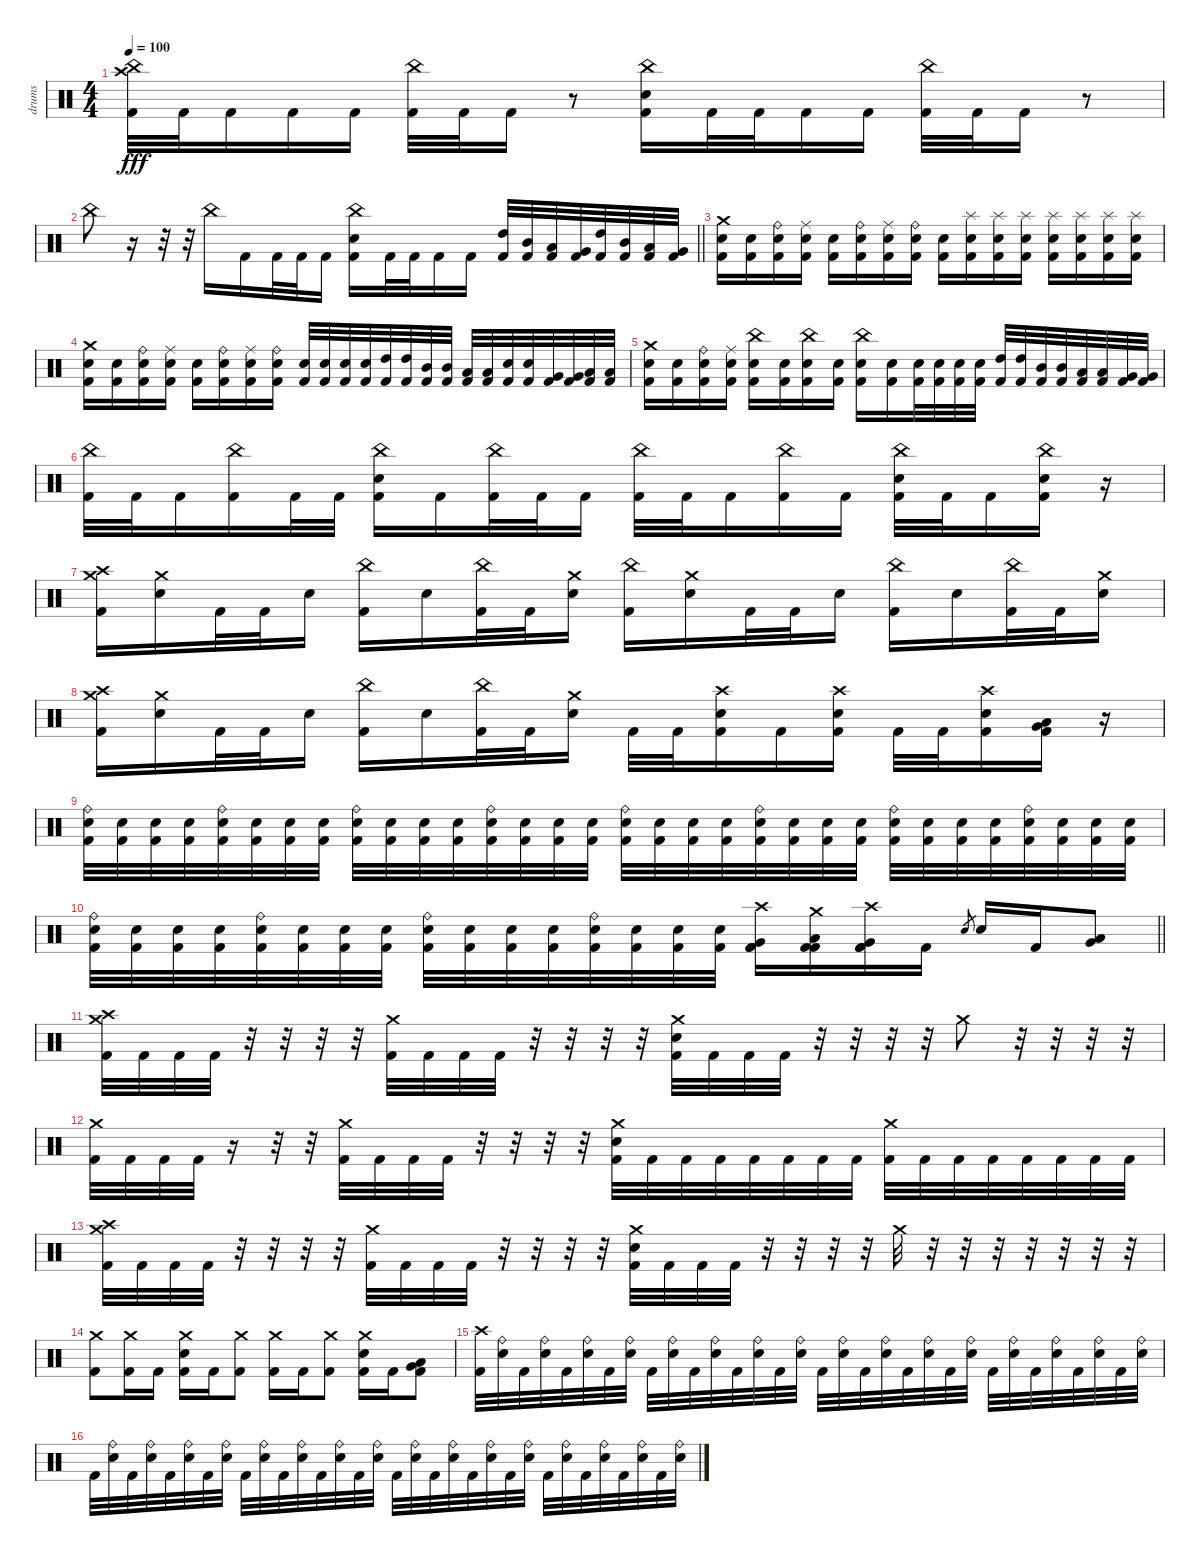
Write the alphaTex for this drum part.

\track ("drums" "drums") {instrument percussion}
\staff {score}
\articulation defaults
\ts (4 4)
\tempo 100
\clef neutral
\ks c
("China (hit)" "Crash high (hit)" "Kick (hit) 2").32{dy fff} "Kick (hit) 2".32 "Kick (hit) 2".16 "Kick (hit) 2".16 "Kick (hit) 2".16 ("China (hit)" "Kick (hit) 2").32 "Kick (hit) 2".32 "Kick (hit) 2".16 r.8 ("China (hit)" "Electric Snare (hit)" "Kick (hit) 2").16 "Kick (hit) 2".32 "Kick (hit) 2".32 "Kick (hit) 2".16 "Kick (hit) 2".16 ("China (hit)" "Kick (hit) 2").32 "Kick (hit) 2".32 "Kick (hit) 2".16 r.8 |
\barLineRight lightlight "China (hit)".8
r.16 r.32 r.32 "China (hit)".16 "Kick (hit) 2".16 "Kick (hit) 2".32 "Kick (hit) 2".32 "Kick (hit) 2".16 ("China (hit)" "Electric Snare (hit)" "Kick (hit) 2").16 "Kick (hit) 2".32 "Kick (hit) 2".32 "Kick (hit) 2".16 "Kick (hit) 2".16 ("High Tom (hit)" "Kick (hit) 2").32 ("Mid Tom (hit)" "Kick (hit) 2").32 ("Low Tom (hit)" "Kick (hit) 2").32 ("Very Low Tom (hit)" "Kick (hit) 2").32 ("High Tom (hit)" "Kick (hit) 2").32 ("Mid Tom (hit)" "Kick (hit) 2").32 ("Low Tom (hit)" "Kick (hit) 2").32 ("Very Low Tom (hit)" "Kick (hit) 2").32 |
\section ("" "")
("Crash medium (hit)" "Electric Snare (hit)" "Kick (hit) 2").16 ("Electric Snare (hit)" "Kick (hit) 2").16 ("Ride (bell)" "Electric Snare (hit)" "Kick (hit) 2").16 ("Ride (middle)" "Electric Snare (hit)" "Kick (hit) 2").16 ("Electric Snare (hit)" "Kick (hit) 2").16 ("Ride (bell)" "Electric Snare (hit)" "Kick (hit) 2").16 ("Ride (middle)" "Electric Snare (hit)" "Kick (hit) 2").16 ("Ride (bell)" "Electric Snare (hit)" "Kick (hit) 2").16 ("Electric Snare (hit)" "Kick (hit) 2").16 ("Splash (hit)" "Electric Snare (hit)" "Kick (hit) 2").16 ("Splash (hit)" "Electric Snare (hit)" "Kick (hit) 2").16 ("Splash (hit)" "Electric Snare (hit)" "Kick (hit) 2").16 ("Splash (hit)" "Electric Snare (hit)" "Kick (hit) 2").16 ("Splash (hit)" "Electric Snare (hit)" "Kick (hit) 2").16 ("Splash (hit)" "Electric Snare (hit)" "Kick (hit) 2").16 ("Splash (hit)" "Electric Snare (hit)" "Kick (hit) 2").16 |
("Crash medium (hit)" "Electric Snare (hit)" "Kick (hit) 2").16 ("Electric Snare (hit)" "Kick (hit) 2").16 ("Ride (bell)" "Electric Snare (hit)" "Kick (hit) 2").16 ("Ride (middle)" "Electric Snare (hit)" "Kick (hit) 2").16 ("Electric Snare (hit)" "Kick (hit) 2").16 ("Ride (bell)" "Electric Snare (hit)" "Kick (hit) 2").16 ("Ride (middle)" "Electric Snare (hit)" "Kick (hit) 2").16 ("Ride (bell)" "Electric Snare (hit)" "Kick (hit) 2").16 ("Electric Snare (hit)" "Kick (hit) 2").32 ("Electric Snare (hit)" "Kick (hit) 2").32 ("Electric Snare (hit)" "Kick (hit) 2").32 ("Electric Snare (hit)" "Kick (hit) 2").32 ("High Tom (hit)" "Kick (hit) 2").32 ("High Tom (hit)" "Kick (hit) 2").32 ("Mid Tom (hit)" "Kick (hit) 2").32 ("Mid Tom (hit)" "Kick (hit) 2").32 ("Low Tom (hit)" "Kick (hit) 2").32 ("Low Tom (hit)" "Kick (hit) 2").32 ("Electric Snare (hit)" "Kick (hit) 2").32 ("Electric Snare (hit)" "Kick (hit) 2").32 ("Very Low Tom (hit)" "Kick (hit) 2").32 ("Very Low Tom (hit)" "Kick (hit) 2").32 ("Low Floor Tom (hit)" "Kick (hit) 2").32 ("Low Floor Tom (hit)" "Kick (hit) 2").32 |
("Crash medium (hit)" "Electric Snare (hit)" "Kick (hit) 2").16 ("Electric Snare (hit)" "Kick (hit) 2").16 ("Ride (bell)" "Electric Snare (hit)" "Kick (hit) 2").16 ("Ride (middle)" "Electric Snare (hit)" "Kick (hit) 2").16 ("China (hit)" "Electric Snare (hit)" "Kick (hit) 2").16 ("Electric Snare (hit)" "Kick (hit) 2").16 ("China (hit)" "Electric Snare (hit)" "Kick (hit) 2").16 ("Electric Snare (hit)" "Kick (hit) 2").16 ("China (hit)" "Electric Snare (hit)" "Kick (hit) 2").16 ("Electric Snare (hit)" "Kick (hit) 2").16 ("Electric Snare (hit)" "Kick (hit) 2").32 ("Electric Snare (hit)" "Kick (hit) 2").32 ("Electric Snare (hit)" "Kick (hit) 2").32 ("Electric Snare (hit)" "Kick (hit) 2").32 ("High Tom (hit)" "Kick (hit) 2").32 ("High Tom (hit)" "Kick (hit) 2").32 ("Mid Tom (hit)" "Kick (hit) 2").32 ("Mid Tom (hit)" "Kick (hit) 2").32 ("Low Tom (hit)" "Kick (hit) 2").32 ("Low Tom (hit)" "Kick (hit) 2").32 ("Very Low Tom (hit)" "Kick (hit) 2").32 ("Very Low Tom (hit)" "Kick (hit) 2").32 |
("China (hit)" "Kick (hit) 2").32 "Kick (hit) 2".32 "Kick (hit) 2".16 ("China (hit)" "Kick (hit) 2").16 "Kick (hit) 2".32 "Kick (hit) 2".32 ("China (hit)" "Electric Snare (hit)" "Kick (hit) 2").16 "Kick (hit) 2".16 ("China (hit)" "Kick (hit) 2").32 "Kick (hit) 2".32 "Kick (hit) 2".16 ("China (hit)" "Kick (hit) 2").32 "Kick (hit) 2".32 "Kick (hit) 2".16 ("China (hit)" "Kick (hit) 2").16 "Kick (hit) 2".16 ("China (hit)" "Electric Snare (hit)" "Kick (hit) 2").32 "Kick (hit) 2".32 "Kick (hit) 2".16 ("China (hit)" "Electric Snare (hit)" "Kick (hit) 2").16 r.16 |
("Crash high (hit)" "Crash medium (hit)" "Kick (hit) 2").16 ("Crash medium (hit)" "Electric Snare (hit)").16 "Kick (hit) 2".32 "Kick (hit) 2".32 "Electric Snare (hit)".16 ("China (hit)" "Kick (hit) 2").16 "Electric Snare (hit)".16 ("China (hit)" "Kick (hit) 2").32 "Kick (hit) 2".32 ("Crash medium (hit)" "Electric Snare (hit)").16 ("China (hit)" "Kick (hit) 2").16 ("Crash medium (hit)" "Electric Snare (hit)").16 "Kick (hit) 2".32 "Kick (hit) 2".32 "Electric Snare (hit)".16 ("China (hit)" "Kick (hit) 2").16 "Electric Snare (hit)".16 ("China (hit)" "Kick (hit) 2").32 "Kick (hit) 2".32 ("Crash medium (hit)" "Electric Snare (hit)").16 |
("Crash high (hit)" "Crash medium (hit)" "Kick (hit) 2").16 ("Crash medium (hit)" "Electric Snare (hit)").16 "Kick (hit) 2".32 "Kick (hit) 2".32 "Electric Snare (hit)".16 ("China (hit)" "Kick (hit) 2").16 "Electric Snare (hit)".16 ("China (hit)" "Kick (hit) 2").32 "Kick (hit) 2".32 ("Crash medium (hit)" "Electric Snare (hit)").16 "Kick (hit) 2".32 "Kick (hit) 2".32 ("Crash high (hit)" "Electric Snare (hit)" "Kick (hit) 2").16 "Kick (hit) 2".16 ("Crash high (hit)" "Electric Snare (hit)" "Kick (hit) 2").16 "Kick (hit) 2".32 "Kick (hit) 2".32 ("Crash high (hit)" "Electric Snare (hit)" "Kick (hit) 2").16 ("Very Low Tom (hit)" "Low Floor Tom (hit)" "Kick (hit) 2").16 r.16 |
("Ride (bell)" "Electric Snare (hit)" "Kick (hit) 2").32 ("Electric Snare (hit)" "Kick (hit) 2").32 ("Electric Snare (hit)" "Kick (hit) 2").32 ("Electric Snare (hit)" "Kick (hit) 2").32 ("Ride (bell)" "Electric Snare (hit)" "Kick (hit) 2").32 ("Electric Snare (hit)" "Kick (hit) 2").32 ("Electric Snare (hit)" "Kick (hit) 2").32 ("Electric Snare (hit)" "Kick (hit) 2").32 ("Ride (bell)" "Electric Snare (hit)" "Kick (hit) 2").32 ("Electric Snare (hit)" "Kick (hit) 2").32 ("Electric Snare (hit)" "Kick (hit) 2").32 ("Electric Snare (hit)" "Kick (hit) 2").32 ("Ride (bell)" "Electric Snare (hit)" "Kick (hit) 2").32 ("Electric Snare (hit)" "Kick (hit) 2").32 ("Electric Snare (hit)" "Kick (hit) 2").32 ("Electric Snare (hit)" "Kick (hit) 2").32 ("Ride (bell)" "Electric Snare (hit)" "Kick (hit) 2").32 ("Electric Snare (hit)" "Kick (hit) 2").32 ("Electric Snare (hit)" "Kick (hit) 2").32 ("Electric Snare (hit)" "Kick (hit) 2").32 ("Ride (bell)" "Electric Snare (hit)" "Kick (hit) 2").32 ("Electric Snare (hit)" "Kick (hit) 2").32 ("Electric Snare (hit)" "Kick (hit) 2").32 ("Electric Snare (hit)" "Kick (hit) 2").32 ("Ride (bell)" "Electric Snare (hit)" "Kick (hit) 2").32 ("Electric Snare (hit)" "Kick (hit) 2").32 ("Electric Snare (hit)" "Kick (hit) 2").32 ("Electric Snare (hit)" "Kick (hit) 2").32 ("Ride (bell)" "Electric Snare (hit)" "Kick (hit) 2").32 ("Electric Snare (hit)" "Kick (hit) 2").32 ("Electric Snare (hit)" "Kick (hit) 2").32 ("Electric Snare (hit)" "Kick (hit) 2").32 |
\barLineRight lightlight
("Ride (bell)" "Electric Snare (hit)" "Kick (hit) 2").32 ("Electric Snare (hit)" "Kick (hit) 2").32 ("Electric Snare (hit)" "Kick (hit) 2").32 ("Electric Snare (hit)" "Kick (hit) 2").32 ("Ride (bell)" "Electric Snare (hit)" "Kick (hit) 2").32 ("Electric Snare (hit)" "Kick (hit) 2").32 ("Electric Snare (hit)" "Kick (hit) 2").32 ("Electric Snare (hit)" "Kick (hit) 2").32 ("Ride (bell)" "Electric Snare (hit)" "Kick (hit) 2").32 ("Electric Snare (hit)" "Kick (hit) 2").32 ("Electric Snare (hit)" "Kick (hit) 2").32 ("Electric Snare (hit)" "Kick (hit) 2").32 ("Ride (bell)" "Electric Snare (hit)" "Kick (hit) 2").32 ("Electric Snare (hit)" "Kick (hit) 2").32 ("Electric Snare (hit)" "Kick (hit) 2").32 ("Electric Snare (hit)" "Kick (hit) 2").32 ("Crash high (hit)" "Very Low Tom (hit)" "Kick (hit) 2" "Kick (hit) 2").16 ("Crash medium (hit)" "Low Floor Tom (hit)" "Kick (hit) 2" "Kick (hit) 2").16 ("Crash high (hit)" "Very Low Tom (hit)" "Kick (hit) 2" "Kick (hit) 2").16 "Kick (hit) 2".16 "Electric Snare (hit)".8{gr} "Electric Snare (hit)".16 "Kick (hit) 2".16 ("Very Low Tom (hit)" "Low Floor Tom (hit)").8 |
\section ("" "")
("Crash high (hit)" "Crash medium (hit)" "Kick (hit) 2").32 "Kick (hit) 2".32 "Kick (hit) 2".32 "Kick (hit) 2".32 r.32 r.32 r.32 r.32 ("Crash medium (hit)" "Kick (hit) 2").32 "Kick (hit) 2".32 "Kick (hit) 2".32 "Kick (hit) 2".32 r.32 r.32 r.32 r.32 ("Crash medium (hit)" "Electric Snare (hit)" "Kick (hit) 2").32 "Kick (hit) 2".32 "Kick (hit) 2".32 "Kick (hit) 2".32 r.32 r.32 r.32 r.32 "Crash medium (hit)".8 r.32 r.32 r.32 r.32 |
("Crash medium (hit)" "Kick (hit) 2").32 "Kick (hit) 2".32 "Kick (hit) 2".32 "Kick (hit) 2".32 r.16 r.32 r.32 ("Crash medium (hit)" "Kick (hit) 2").32 "Kick (hit) 2".32 "Kick (hit) 2".32 "Kick (hit) 2".32 r.32 r.32 r.32 r.32 ("Crash medium (hit)" "Electric Snare (hit)" "Kick (hit) 2").32 "Kick (hit) 2".32 "Kick (hit) 2".32 "Kick (hit) 2".32 "Kick (hit) 2".32 "Kick (hit) 2".32 "Kick (hit) 2".32 "Kick (hit) 2".32 ("Crash medium (hit)" "Kick (hit) 2").32 "Kick (hit) 2".32 "Kick (hit) 2".32 "Kick (hit) 2".32 "Kick (hit) 2".32 "Kick (hit) 2".32 "Kick (hit) 2".32 "Kick (hit) 2".32 |
("Crash high (hit)" "Crash medium (hit)" "Kick (hit) 2").32 "Kick (hit) 2".32 "Kick (hit) 2".32 "Kick (hit) 2".32 r.32 r.32 r.32 r.32 ("Crash medium (hit)" "Kick (hit) 2").32 "Kick (hit) 2".32 "Kick (hit) 2".32 "Kick (hit) 2".32 r.32 r.32 r.32 r.32 ("Crash medium (hit)" "Electric Snare (hit)" "Kick (hit) 2").32 "Kick (hit) 2".32 "Kick (hit) 2".32 "Kick (hit) 2".32 r.32 r.32 r.32 r.32 "Crash medium (hit)".32 r.32 r.32 r.32 r.32 r.32 r.32 r.32 |
("Crash medium (hit)" "Kick (hit) 2").8 ("Crash medium (hit)" "Kick (hit) 2").16 "Kick (hit) 2".16 ("Crash medium (hit)" "Electric Snare (hit)" "Kick (hit) 2").16 "Kick (hit) 2".16 ("Crash medium (hit)" "Kick (hit) 2").8 ("Crash medium (hit)" "Kick (hit) 2").16 "Kick (hit) 2".16 ("Crash medium (hit)" "Kick (hit) 2").8 ("Crash medium (hit)" "Electric Snare (hit)" "Kick (hit) 2").16 "Kick (hit) 2".16 ("Very Low Tom (hit)" "Low Floor Tom (hit)" "Kick (hit) 2").8 |
("Crash high (hit)" "Kick (hit) 2").32 ("Ride (bell)" "Electric Snare (hit)").32 "Kick (hit) 2".32 ("Ride (bell)" "Electric Snare (hit)").32 "Kick (hit) 2".32 ("Ride (bell)" "Electric Snare (hit)").32 "Kick (hit) 2".32 ("Ride (bell)" "Electric Snare (hit)").32 "Kick (hit) 2".32 ("Ride (bell)" "Electric Snare (hit)").32 "Kick (hit) 2".32 ("Ride (bell)" "Electric Snare (hit)").32 "Kick (hit) 2".32 ("Ride (bell)" "Electric Snare (hit)").32 "Kick (hit) 2".32 ("Ride (bell)" "Electric Snare (hit)").32 "Kick (hit) 2".32 ("Ride (bell)" "Electric Snare (hit)").32 "Kick (hit) 2".32 ("Ride (bell)" "Electric Snare (hit)").32 "Kick (hit) 2".32 ("Ride (bell)" "Electric Snare (hit)").32 "Kick (hit) 2".32 ("Ride (bell)" "Electric Snare (hit)").32 "Kick (hit) 2".32 ("Ride (bell)" "Electric Snare (hit)").32 "Kick (hit) 2".32 ("Ride (bell)" "Electric Snare (hit)").32 "Kick (hit) 2".32 ("Ride (bell)" "Electric Snare (hit)").32 "Kick (hit) 2".32 ("Ride (bell)" "Electric Snare (hit)").32 |
"Kick (hit) 2".32 ("Ride (bell)" "Electric Snare (hit)").32 "Kick (hit) 2".32 ("Ride (bell)" "Electric Snare (hit)").32 "Kick (hit) 2".32 ("Ride (bell)" "Electric Snare (hit)").32 "Kick (hit) 2".32 ("Ride (bell)" "Electric Snare (hit)").32 "Kick (hit) 2".32 ("Ride (bell)" "Electric Snare (hit)").32 "Kick (hit) 2".32 ("Ride (bell)" "Electric Snare (hit)").32 "Kick (hit) 2".32 ("Ride (bell)" "Electric Snare (hit)").32 "Kick (hit) 2".32 ("Ride (bell)" "Electric Snare (hit)").32 "Kick (hit) 2".32 ("Ride (bell)" "Electric Snare (hit)").32 "Kick (hit) 2".32 ("Ride (bell)" "Electric Snare (hit)").32 "Kick (hit) 2".32 ("Ride (bell)" "Electric Snare (hit)").32 "Kick (hit) 2".32 ("Ride (bell)" "Electric Snare (hit)").32 "Kick (hit) 2".32 ("Ride (bell)" "Electric Snare (hit)").32 "Kick (hit) 2".32 ("Ride (bell)" "Electric Snare (hit)").32 "Kick (hit) 2".32 ("Ride (bell)" "Electric Snare (hit)").32 "Kick (hit) 2".32 ("Ride (bell)" "Electric Snare (hit)").32
